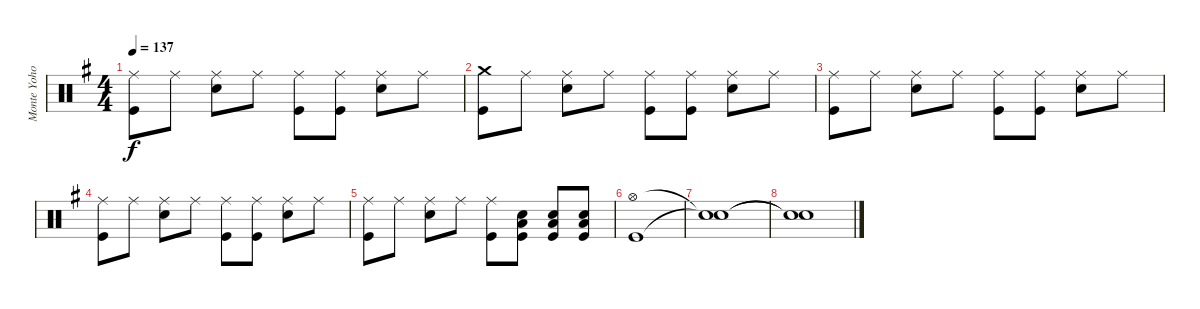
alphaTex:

\track ("Monte Yoho Drums" "Monte Yoho") {instrument percussion}
\staff {score}
\articulation defaults
\ts (4 4)
\tempo 137
\clef neutral
\ks g
("Ride (middle)" "Kick (hit)").8{dy f} "Ride (middle)".8 ("Ride (middle)" "Snare (hit) 2").8 "Ride (middle)".8 ("Ride (middle)" "Kick (hit)").8 ("Ride (middle)" "Kick (hit)").8 ("Ride (middle)" "Snare (hit) 2").8 "Ride (middle)".8 |
("Crash medium (hit)" "Kick (hit)").8 "Ride (middle)".8 ("Ride (middle)" "Snare (hit) 2").8 "Ride (middle)".8 ("Ride (middle)" "Kick (hit)").8 ("Ride (middle)" "Kick (hit)").8 ("Ride (middle)" "Snare (hit) 2").8 "Ride (middle)".8 |
("Ride (middle)" "Kick (hit)").8 "Ride (middle)".8 ("Ride (middle)" "Snare (hit) 2").8 "Ride (middle)".8 ("Ride (middle)" "Kick (hit)").8 ("Ride (middle)" "Kick (hit)").8 ("Ride (middle)" "Snare (hit) 2").8 "Ride (middle)".8 |
("Ride (middle)" "Kick (hit)").8 "Ride (middle)".8 ("Ride (middle)" "Snare (hit) 2").8 "Ride (middle)".8 ("Ride (middle)" "Kick (hit)").8 ("Ride (middle)" "Kick (hit)").8 ("Ride (middle)" "Snare (hit) 2").8 "Ride (middle)".8 |
("Ride (middle)" "Kick (hit)").8 "Ride (middle)".8 ("Ride (middle)" "Snare (hit) 2").8 "Ride (middle)".8 ("Ride (middle)" "Kick (hit)").8 ("Snare (hit) 2" "Low Tom (hit)" "Kick (hit)").8 ("Snare (hit) 2" "Low Tom (hit)" "Kick (hit)").8 ("Snare (hit) 2" "Low Tom (hit)" "Kick (hit)").8 |
("Hi-Hat (open)" "Kick (hit)").1 |
("Snare (hit)"{t} "Snare (hit)"{t}).1 |
("Snare (hit)"{t} "Snare (hit)"{t}).1
